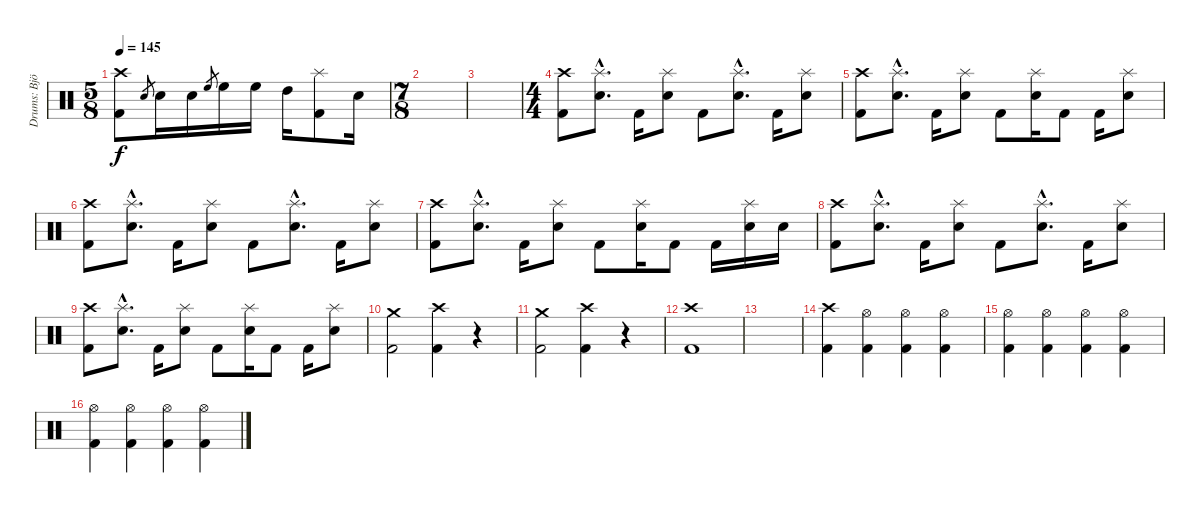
\track ("Drums: Björn Fryklund" "Drums: Bjö") {instrument percussion}
\staff {score}
\articulation defaults
\ts (5 8)
\tempo 145
\clef neutral
\ks c
("Crash high (hit)" "Kick (hit) 2").8{dy f} "Snare (hit) 2".8{gr} "Snare (hit) 2".16 "Snare (hit) 2".16 "High Floor Tom (hit)".8{gr} "High Floor Tom (hit)".16 "High Floor Tom (hit)".16 "High Tom (hit)".16 ("Splash (hit)" "Kick (hit) 2").8 "Snare (hit) 2".16 |
\ts (7 8)
|
|
\ts (4 4)
("Crash high (hit)" "Kick (hit) 2").8 ("Splash (hit)"{hac} "Snare (hit) 2"{hac}).8{d} "Kick (hit) 2".16 ("Splash (hit)" "Snare (hit) 2").8 "Kick (hit) 2".8 ("Splash (hit)"{hac} "Snare (hit) 2"{hac}).8{d} "Kick (hit) 2".16 ("Splash (hit)" "Snare (hit) 2").8 |
("Crash high (hit)" "Kick (hit) 2").8 ("Splash (hit)"{hac} "Snare (hit) 2"{hac}).8{d} "Kick (hit) 2".16 ("Splash (hit)" "Snare (hit) 2").8 "Kick (hit) 2".8 ("Splash (hit)" "Snare (hit) 2").16 "Kick (hit) 2".8 "Kick (hit) 2".16 ("Splash (hit)" "Snare (hit) 2").8 |
("Crash high (hit)" "Kick (hit) 2").8 ("Splash (hit)"{hac} "Snare (hit) 2"{hac}).8{d} "Kick (hit) 2".16 ("Splash (hit)" "Snare (hit) 2").8 "Kick (hit) 2".8 ("Splash (hit)"{hac} "Snare (hit) 2"{hac}).8{d} "Kick (hit) 2".16 ("Splash (hit)" "Snare (hit) 2").8 |
("Crash high (hit)" "Kick (hit) 2").8 ("Splash (hit)"{hac} "Snare (hit) 2"{hac}).8{d} "Kick (hit) 2".16 ("Splash (hit)" "Snare (hit) 2").8 "Kick (hit) 2".8 ("Splash (hit)" "Snare (hit) 2").16 "Kick (hit) 2".8 "Kick (hit) 2".16 ("Splash (hit)" "Snare (hit) 2").16 "Snare (hit) 2".16 |
("Crash high (hit)" "Kick (hit) 2").8 ("Splash (hit)"{hac} "Snare (hit) 2"{hac}).8{d} "Kick (hit) 2".16 ("Splash (hit)" "Snare (hit) 2").8 "Kick (hit) 2".8 ("Splash (hit)"{hac} "Snare (hit) 2"{hac}).8{d} "Kick (hit) 2".16 ("Splash (hit)" "Snare (hit) 2").8 |
("Crash high (hit)" "Kick (hit) 2").8 ("Splash (hit)"{hac} "Snare (hit) 2"{hac}).8{d} "Kick (hit) 2".16 ("Splash (hit)" "Snare (hit) 2").8 "Kick (hit) 2".8 ("Splash (hit)" "Snare (hit) 2").16 "Kick (hit) 2".8 "Kick (hit) 2".16 ("Splash (hit)" "Snare (hit) 2").8 |
("Crash medium (hit)" "Kick (hit) 2").2 ("Crash high (hit)" "Kick (hit) 2").4 r.4 |
("Crash medium (hit)" "Kick (hit) 2").2 ("Crash high (hit)" "Kick (hit) 2").4 r.4 |
("Crash high (hit)" "Kick (hit) 2").1 |
|
("Crash high (hit)" "Kick (hit) 2").4 ("Hi-Hat (open)" "Kick (hit) 2").4 ("Hi-Hat (open)" "Kick (hit) 2").4 ("Hi-Hat (open)" "Kick (hit) 2").4 |
("Hi-Hat (open)" "Kick (hit) 2").4 ("Hi-Hat (open)" "Kick (hit) 2").4 ("Hi-Hat (open)" "Kick (hit) 2").4 ("Hi-Hat (open)" "Kick (hit) 2").4 |
("Hi-Hat (open)" "Kick (hit) 2").4 ("Hi-Hat (open)" "Kick (hit) 2").4 ("Hi-Hat (open)" "Kick (hit) 2").4 ("Hi-Hat (open)" "Kick (hit) 2").4
